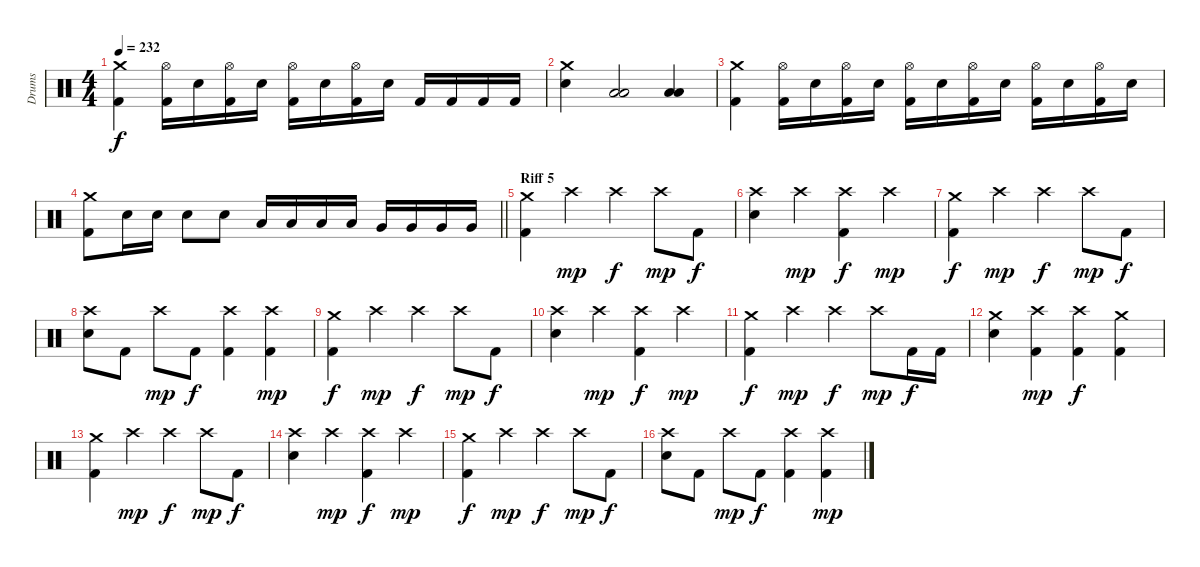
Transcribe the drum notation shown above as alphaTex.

\track ("Drums" "Drums") {instrument percussion}
\staff {score}
\articulation defaults
\ts (4 4)
\tempo 232
\clef neutral
\ks c
("Crash medium (hit)" "Kick (hit) 2").4{dy f} ("Hi-Hat (open)" "Kick (hit) 2").16 "Electric Snare (hit)".16 ("Hi-Hat (open)" "Kick (hit) 2").16 "Electric Snare (hit)".16 ("Hi-Hat (open)" "Kick (hit) 2").16 "Electric Snare (hit)".16 ("Hi-Hat (open)" "Kick (hit) 2").16 "Electric Snare (hit)".16 "Kick (hit) 2".16 "Kick (hit) 2".16 "Kick (hit) 2".16 "Kick (hit) 2".16 |
("Crash medium (hit)" "Electric Snare (hit)").4 ("Low Tom (hit)" "Low Floor Tom (hit)").2 ("Low Tom (hit)" "Low Floor Tom (hit)").4 |
("Crash medium (hit)" "Kick (hit) 2").4 ("Hi-Hat (open)" "Kick (hit) 2").16 "Electric Snare (hit)".16 ("Hi-Hat (open)" "Kick (hit) 2").16 "Electric Snare (hit)".16 ("Hi-Hat (open)" "Kick (hit) 2").16 "Electric Snare (hit)".16 ("Hi-Hat (open)" "Kick (hit) 2").16 "Electric Snare (hit)".16 ("Hi-Hat (open)" "Kick (hit) 2").16 "Electric Snare (hit)".16 ("Hi-Hat (open)" "Kick (hit) 2").16 "Electric Snare (hit)".16 |
\barLineRight lightlight
("Kick (hit) 2" "Crash medium (hit)").8 "Electric Snare (hit)".16 "Electric Snare (hit)".16 "Electric Snare (hit)".8 "Electric Snare (hit)".8 "Low Tom (hit)".16 "Low Tom (hit)".16 "Low Tom (hit)".16 "Low Tom (hit)".16 "Very Low Tom (hit)".16 "Very Low Tom (hit)".16 "Very Low Tom (hit)".16 "Very Low Tom (hit)".16 |
\section ("" "Riff 5")
("Crash medium (hit)" "Kick (hit) 2").4 "Crash high (hit)".4{dy mp} "Crash high (hit)".4{dy f} "Crash high (hit)".8{dy mp} "Kick (hit) 2".8{dy f} |
("Electric Snare (hit)" "Crash high (hit)").4 "Crash high (hit)".4{dy mp} ("Crash high (hit)" "Kick (hit) 2").4{dy f} "Crash high (hit)".4{dy mp} |
("Crash medium (hit)" "Kick (hit) 2").4{dy f} "Crash high (hit)".4{dy mp} "Crash high (hit)".4{dy f} "Crash high (hit)".8{dy mp} "Kick (hit) 2".8{dy f} |
("Electric Snare (hit)" "Crash high (hit)").8 "Kick (hit) 2".8 "Crash high (hit)".8{dy mp} "Kick (hit) 2".8{dy f} ("Kick (hit) 2" "Crash high (hit)").4 ("Crash high (hit)" "Kick (hit) 2").4{dy mp} |
("Crash medium (hit)" "Kick (hit) 2").4{dy f} "Crash high (hit)".4{dy mp} "Crash high (hit)".4{dy f} "Crash high (hit)".8{dy mp} "Kick (hit) 2".8{dy f} |
("Electric Snare (hit)" "Crash high (hit)").4 "Crash high (hit)".4{dy mp} ("Crash high (hit)" "Kick (hit) 2").4{dy f} "Crash high (hit)".4{dy mp} |
("Crash medium (hit)" "Kick (hit) 2").4{dy f} "Crash high (hit)".4{dy mp} "Crash high (hit)".4{dy f} "Crash high (hit)".8{dy mp} "Kick (hit) 2".16{dy f} "Kick (hit) 2".16 |
("Crash medium (hit)" "Electric Snare (hit)").4 ("Kick (hit) 2" "Crash high (hit)").4{dy mp} ("Kick (hit) 2" "Crash high (hit)").4{dy f} ("Kick (hit) 2" "Crash medium (hit)").4 |
("Crash medium (hit)" "Kick (hit) 2").4 "Crash high (hit)".4{dy mp} "Crash high (hit)".4{dy f} "Crash high (hit)".8{dy mp} "Kick (hit) 2".8{dy f} |
("Electric Snare (hit)" "Crash high (hit)").4 "Crash high (hit)".4{dy mp} ("Crash high (hit)" "Kick (hit) 2").4{dy f} "Crash high (hit)".4{dy mp} |
("Crash medium (hit)" "Kick (hit) 2").4{dy f} "Crash high (hit)".4{dy mp} "Crash high (hit)".4{dy f} "Crash high (hit)".8{dy mp} "Kick (hit) 2".8{dy f} |
("Electric Snare (hit)" "Crash high (hit)").8 "Kick (hit) 2".8 "Crash high (hit)".8{dy mp} "Kick (hit) 2".8{dy f} ("Kick (hit) 2" "Crash high (hit)").4 ("Crash high (hit)" "Kick (hit) 2").4{dy mp}
